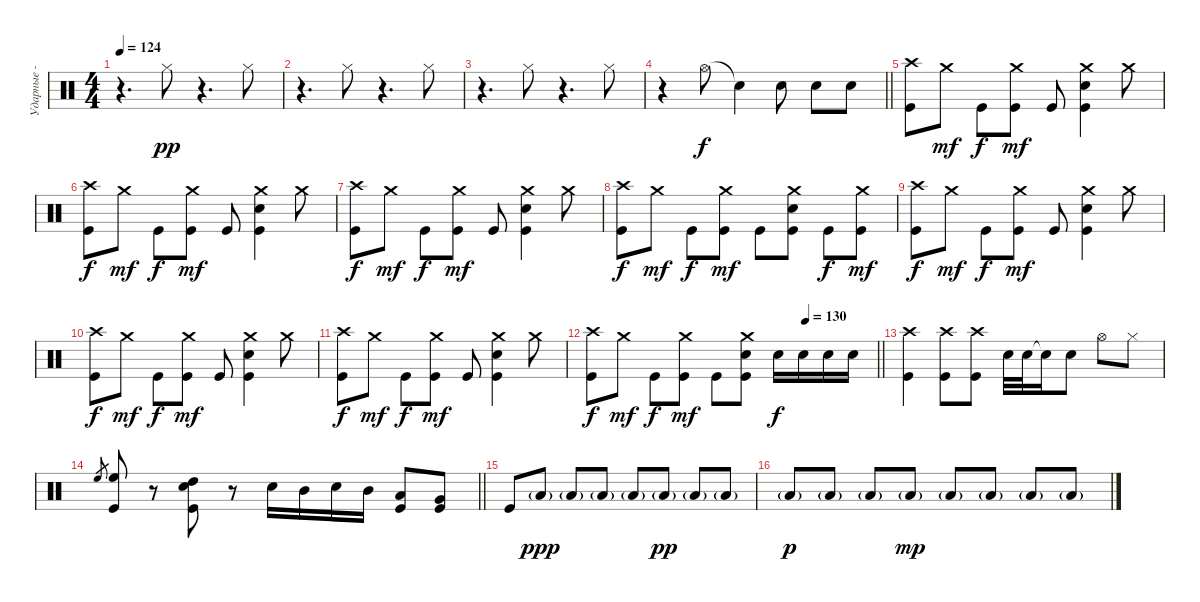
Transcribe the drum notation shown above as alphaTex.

\track ("Ударные - Джек Уайт" "Ударные - ") {instrument percussion}
\staff {score}
\articulation defaults
\ts (4 4)
\tempo 124
\clef neutral
\ks c
r.4{d dy pp} "Hi-Hat (closed)".8 r.4{d} "Hi-Hat (closed)".8 |
r.4{d} "Hi-Hat (closed)".8 r.4{d} "Hi-Hat (closed)".8 |
r.4{d} "Hi-Hat (closed)".8 r.4{d} "Hi-Hat (closed)".8 |
\barLineRight lightlight
r.4 "Hi-Hat (open)".8{dy f} "Snare (hit)"{t}.4 "Electric Snare (hit)".8 "Electric Snare (hit)".8 "Electric Snare (hit)".8 |
("Crash high (hit)" "Kick (hit)").8 "Crash medium (hit)".8{dy mf} "Kick (hit)".8{dy f} ("Crash medium (hit)" "Kick (hit)").8{dy mf} "Kick (hit)".8 ("Crash medium (hit)" "Electric Snare (hit)" "Kick (hit)").4 "Crash medium (hit)".8 |
("Crash high (hit)" "Kick (hit)").8{dy f} "Crash medium (hit)".8{dy mf} "Kick (hit)".8{dy f} ("Crash medium (hit)" "Kick (hit)").8{dy mf} "Kick (hit)".8 ("Crash medium (hit)" "Electric Snare (hit)" "Kick (hit)").4 "Crash medium (hit)".8 |
("Crash high (hit)" "Kick (hit)").8{dy f} "Crash medium (hit)".8{dy mf} "Kick (hit)".8{dy f} ("Crash medium (hit)" "Kick (hit)").8{dy mf} "Kick (hit)".8 ("Crash medium (hit)" "Electric Snare (hit)" "Kick (hit)").4 "Crash medium (hit)".8 |
("Crash high (hit)" "Kick (hit)").8{dy f} "Crash medium (hit)".8{dy mf} "Kick (hit)".8{dy f} ("Crash medium (hit)" "Kick (hit)").8{dy mf} "Kick (hit)".8 ("Crash medium (hit)" "Electric Snare (hit)" "Kick (hit)").8 "Kick (hit)".8{dy f} ("Crash medium (hit)" "Kick (hit)").8{dy mf} |
("Crash high (hit)" "Kick (hit)").8{dy f} "Crash medium (hit)".8{dy mf} "Kick (hit)".8{dy f} ("Crash medium (hit)" "Kick (hit)").8{dy mf} "Kick (hit)".8 ("Crash medium (hit)" "Electric Snare (hit)" "Kick (hit)").4 "Crash medium (hit)".8 |
("Crash high (hit)" "Kick (hit)").8{dy f} "Crash medium (hit)".8{dy mf} "Kick (hit)".8{dy f} ("Crash medium (hit)" "Kick (hit)").8{dy mf} "Kick (hit)".8 ("Crash medium (hit)" "Electric Snare (hit)" "Kick (hit)").4 "Crash medium (hit)".8 |
("Crash high (hit)" "Kick (hit)").8{dy f} "Crash medium (hit)".8{dy mf} "Kick (hit)".8{dy f} ("Crash medium (hit)" "Kick (hit)").8{dy mf} "Kick (hit)".8 ("Crash medium (hit)" "Electric Snare (hit)" "Kick (hit)").4 "Crash medium (hit)".8 |
\tempo (130 0.75)
\barLineRight lightlight
("Crash high (hit)" "Kick (hit)").8{dy f} "Crash medium (hit)".8{dy mf} "Kick (hit)".8{dy f} ("Crash medium (hit)" "Kick (hit)").8{dy mf} "Kick (hit)".8 ("Crash medium (hit)" "Electric Snare (hit)" "Kick (hit)").8 "Snare (hit) 2".16{dy f} "Snare (hit) 2".16 "Snare (hit) 2".16 "Snare (hit) 2".16 |
("Crash high (hit)" "Kick (hit)").4 ("Crash high (hit)" "Kick (hit)").8 ("Crash high (hit)" "Kick (hit)").8 "Snare (hit) 2".32 "Snare (hit) 2".32 "Snare (hit) 2"{t}.16 "Electric Snare (hit)".8 "Hi-Hat (open)".8 "Hi-Hat (closed)".8 |
\barLineRight lightlight "High Floor Tom (hit)".8{gr}
("High Floor Tom (hit)" "Kick (hit)").8 r.8 ("Snare (hit) 2" "High Tom (hit)" "Kick (hit)").8 r.8 "Electric Snare (hit)".16 "Mid Tom (hit)".16 "Electric Snare (hit)".16 "Mid Tom (hit)".16 ("Low Tom (hit)" "Kick (hit)").8 ("Very Low Tom (hit)" "Kick (hit)").8 |
"Kick (hit)".8 "Low Tom (hit)"{g}.8{dy ppp} "Low Tom (hit)"{g}.8 "Low Tom (hit)"{g}.8 "Low Tom (hit)"{g}.8 "Low Tom (hit)"{g}.8{dy pp} "Low Tom (hit)"{g}.8 "Low Tom (hit)"{g}.8 |
"Low Tom (hit)"{g}.8{dy p} "Low Tom (hit)"{g}.8 "Low Tom (hit)"{g}.8 "Low Tom (hit)"{g}.8{dy mp} "Low Tom (hit)"{g}.8 "Low Tom (hit)"{g}.8 "Low Tom (hit)"{g}.8 "Low Tom (hit)"{g}.8
